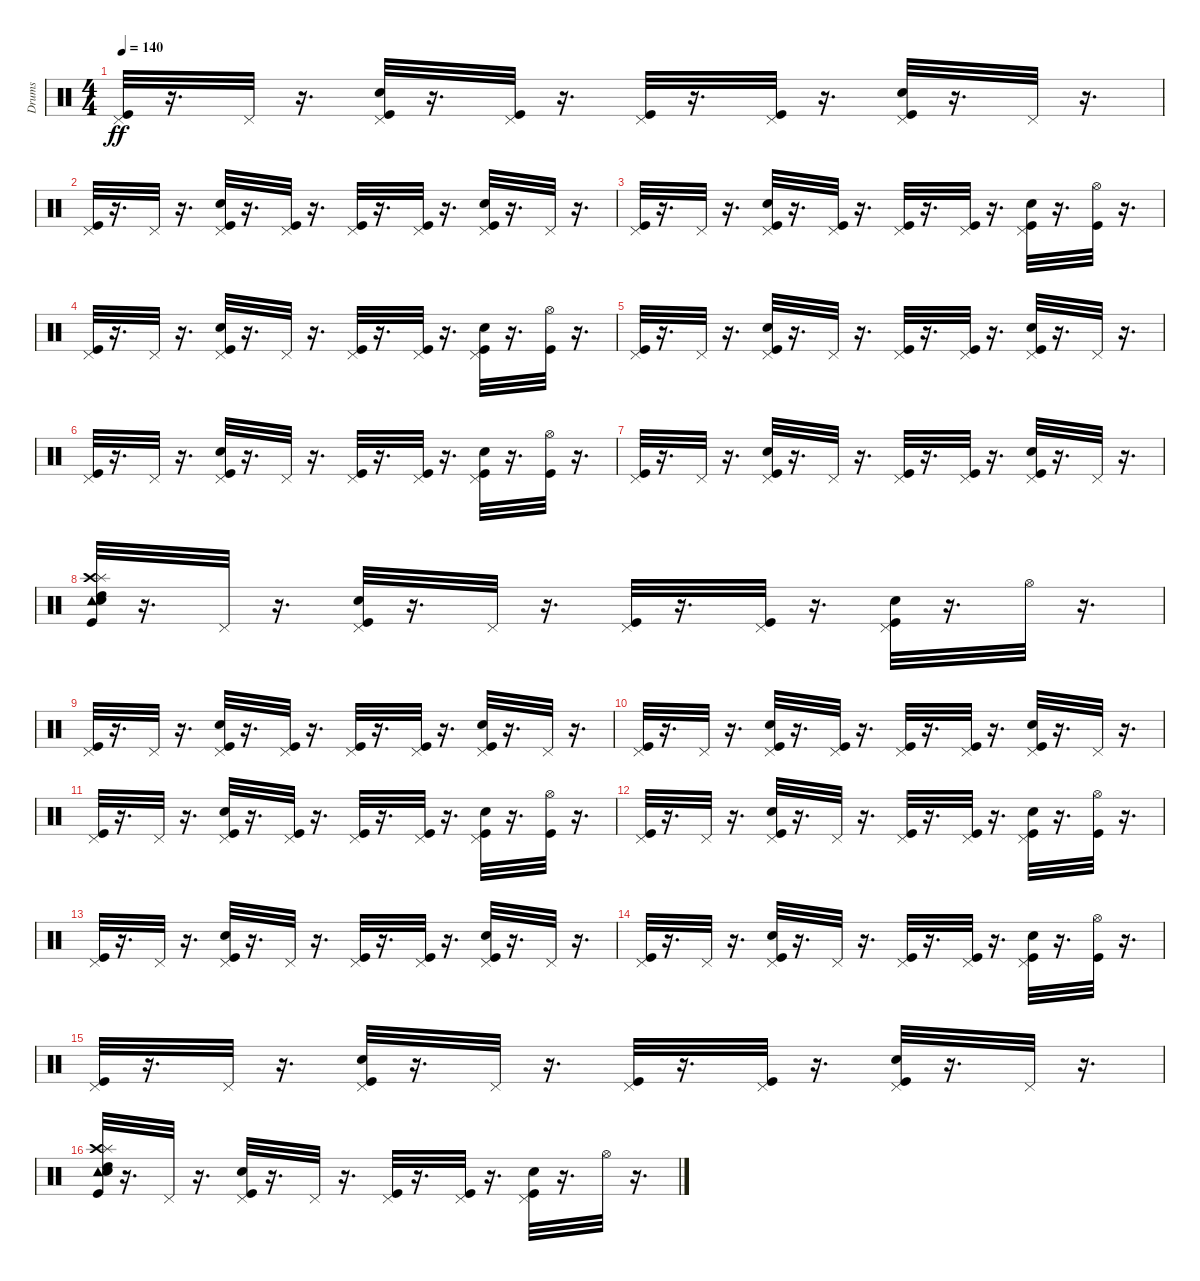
\track ("Drums" "Drums") {instrument percussion}
\staff {score}
\articulation defaults
\ts (4 4)
\tempo 140
\clef neutral
\ks c
("Pedal Hi-Hat (hit)" "Kick (hit)").32{dy ff} r.16{d} "Pedal Hi-Hat (hit)".32 r.16{d} ("Kick (hit)" "Snare (hit) 2" "Pedal Hi-Hat (hit)").32 r.16{d} ("Pedal Hi-Hat (hit)" "Kick (hit)").32 r.16{d} ("Pedal Hi-Hat (hit)" "Kick (hit)").32 r.16{d} ("Pedal Hi-Hat (hit)" "Kick (hit)").32 r.16{d} ("Snare (hit) 2" "Kick (hit)" "Pedal Hi-Hat (hit)").32 r.16{d} "Pedal Hi-Hat (hit)".32 r.16{d} |
("Pedal Hi-Hat (hit)" "Kick (hit)").32 r.16{d} "Pedal Hi-Hat (hit)".32 r.16{d} ("Snare (hit) 2" "Kick (hit)" "Pedal Hi-Hat (hit)").32 r.16{d} ("Kick (hit)" "Pedal Hi-Hat (hit)").32 r.16{d} ("Pedal Hi-Hat (hit)" "Kick (hit)").32 r.16{d} ("Pedal Hi-Hat (hit)" "Kick (hit)").32 r.16{d} ("Pedal Hi-Hat (hit)" "Snare (hit) 2" "Kick (hit)").32 r.16{d} "Pedal Hi-Hat (hit)".32 r.16{d} |
("Pedal Hi-Hat (hit)" "Kick (hit)").32 r.16{d} "Pedal Hi-Hat (hit)".32 r.16{d} ("Kick (hit)" "Pedal Hi-Hat (hit)" "Snare (hit) 2").32 r.16{d} ("Pedal Hi-Hat (hit)" "Kick (hit)").32 r.16{d} ("Pedal Hi-Hat (hit)" "Kick (hit)").32 r.16{d} ("Kick (hit)" "Pedal Hi-Hat (hit)").32 r.16{d} ("Kick (hit)" "Snare (hit) 2" "Pedal Hi-Hat (hit)").32 r.16{d} ("Hi-Hat (open)" "Kick (hit)").32 r.16{d} |
("Pedal Hi-Hat (hit)" "Kick (hit)").32 r.16{d} "Pedal Hi-Hat (hit)".32 r.16{d} ("Pedal Hi-Hat (hit)" "Kick (hit)" "Snare (hit) 2").32 r.16{d} "Pedal Hi-Hat (hit)".32 r.16{d} ("Kick (hit)" "Pedal Hi-Hat (hit)").32 r.16{d} ("Kick (hit)" "Pedal Hi-Hat (hit)").32 r.16{d} ("Kick (hit)" "Snare (hit) 2" "Pedal Hi-Hat (hit)").32 r.16{d} ("Kick (hit)" "Hi-Hat (open)").32 r.16{d} |
("Kick (hit)" "Pedal Hi-Hat (hit)").32 r.16{d} "Pedal Hi-Hat (hit)".32 r.16{d} ("Pedal Hi-Hat (hit)" "Kick (hit)" "Snare (hit) 2").32 r.16{d} "Pedal Hi-Hat (hit)".32 r.16{d} ("Pedal Hi-Hat (hit)" "Kick (hit)").32 r.16{d} ("Pedal Hi-Hat (hit)" "Kick (hit)").32 r.16{d} ("Snare (hit) 2" "Kick (hit)" "Pedal Hi-Hat (hit)").32 r.16{d} "Pedal Hi-Hat (hit)".32 r.16{d} |
("Pedal Hi-Hat (hit)" "Kick (hit)").32 r.16{d} "Pedal Hi-Hat (hit)".32 r.16{d} ("Pedal Hi-Hat (hit)" "Kick (hit)" "Snare (hit) 2").32 r.16{d} "Pedal Hi-Hat (hit)".32 r.16{d} ("Kick (hit)" "Pedal Hi-Hat (hit)").32 r.16{d} ("Kick (hit)" "Pedal Hi-Hat (hit)").32 r.16{d} ("Kick (hit)" "Snare (hit) 2" "Pedal Hi-Hat (hit)").32 r.16{d} ("Kick (hit)" "Hi-Hat (open)").32 r.16{d} |
("Kick (hit)" "Pedal Hi-Hat (hit)").32 r.16{d} "Pedal Hi-Hat (hit)".32 r.16{d} ("Pedal Hi-Hat (hit)" "Kick (hit)" "Snare (hit) 2").32 r.16{d} "Pedal Hi-Hat (hit)".32 r.16{d} ("Pedal Hi-Hat (hit)" "Kick (hit)").32 r.16{d} ("Pedal Hi-Hat (hit)" "Kick (hit)").32 r.16{d} ("Snare (hit) 2" "Kick (hit)" "Pedal Hi-Hat (hit)").32 r.16{d} "Pedal Hi-Hat (hit)".32 r.16{d} |
("Crash high (hit)" "Kick (hit)" "Tambourine (hit)" "Snare (hit) 2" "Splash (hit)" "High Tom (hit)").32 r.16{d} "Pedal Hi-Hat (hit)".32 r.16{d} ("Snare (hit) 2" "Pedal Hi-Hat (hit)" "Kick (hit)").32 r.16{d} "Pedal Hi-Hat (hit)".32 r.16{d} ("Pedal Hi-Hat (hit)" "Kick (hit)").32 r.16{d} ("Pedal Hi-Hat (hit)" "Kick (hit)").32 r.16{d} ("Pedal Hi-Hat (hit)" "Kick (hit)" "Snare (hit) 2").32 r.16{d} "Hi-Hat (open)".32 r.16{d} |
("Pedal Hi-Hat (hit)" "Kick (hit)").32 r.16{d} "Pedal Hi-Hat (hit)".32 r.16{d} ("Kick (hit)" "Snare (hit) 2" "Pedal Hi-Hat (hit)").32 r.16{d} ("Pedal Hi-Hat (hit)" "Kick (hit)").32 r.16{d} ("Pedal Hi-Hat (hit)" "Kick (hit)").32 r.16{d} ("Pedal Hi-Hat (hit)" "Kick (hit)").32 r.16{d} ("Snare (hit) 2" "Kick (hit)" "Pedal Hi-Hat (hit)").32 r.16{d} "Pedal Hi-Hat (hit)".32 r.16{d} |
("Pedal Hi-Hat (hit)" "Kick (hit)").32 r.16{d} "Pedal Hi-Hat (hit)".32 r.16{d} ("Snare (hit) 2" "Kick (hit)" "Pedal Hi-Hat (hit)").32 r.16{d} ("Kick (hit)" "Pedal Hi-Hat (hit)").32 r.16{d} ("Pedal Hi-Hat (hit)" "Kick (hit)").32 r.16{d} ("Pedal Hi-Hat (hit)" "Kick (hit)").32 r.16{d} ("Pedal Hi-Hat (hit)" "Snare (hit) 2" "Kick (hit)").32 r.16{d} "Pedal Hi-Hat (hit)".32 r.16{d} |
("Pedal Hi-Hat (hit)" "Kick (hit)").32 r.16{d} "Pedal Hi-Hat (hit)".32 r.16{d} ("Kick (hit)" "Pedal Hi-Hat (hit)" "Snare (hit) 2").32 r.16{d} ("Pedal Hi-Hat (hit)" "Kick (hit)").32 r.16{d} ("Pedal Hi-Hat (hit)" "Kick (hit)").32 r.16{d} ("Kick (hit)" "Pedal Hi-Hat (hit)").32 r.16{d} ("Kick (hit)" "Snare (hit) 2" "Pedal Hi-Hat (hit)").32 r.16{d} ("Hi-Hat (open)" "Kick (hit)").32 r.16{d} |
("Pedal Hi-Hat (hit)" "Kick (hit)").32 r.16{d} "Pedal Hi-Hat (hit)".32 r.16{d} ("Pedal Hi-Hat (hit)" "Kick (hit)" "Snare (hit) 2").32 r.16{d} "Pedal Hi-Hat (hit)".32 r.16{d} ("Kick (hit)" "Pedal Hi-Hat (hit)").32 r.16{d} ("Kick (hit)" "Pedal Hi-Hat (hit)").32 r.16{d} ("Kick (hit)" "Snare (hit) 2" "Pedal Hi-Hat (hit)").32 r.16{d} ("Kick (hit)" "Hi-Hat (open)").32 r.16{d} |
("Kick (hit)" "Pedal Hi-Hat (hit)").32 r.16{d} "Pedal Hi-Hat (hit)".32 r.16{d} ("Pedal Hi-Hat (hit)" "Kick (hit)" "Snare (hit) 2").32 r.16{d} "Pedal Hi-Hat (hit)".32 r.16{d} ("Pedal Hi-Hat (hit)" "Kick (hit)").32 r.16{d} ("Pedal Hi-Hat (hit)" "Kick (hit)").32 r.16{d} ("Snare (hit) 2" "Kick (hit)" "Pedal Hi-Hat (hit)").32 r.16{d} "Pedal Hi-Hat (hit)".32 r.16{d} |
("Pedal Hi-Hat (hit)" "Kick (hit)").32 r.16{d} "Pedal Hi-Hat (hit)".32 r.16{d} ("Pedal Hi-Hat (hit)" "Kick (hit)" "Snare (hit) 2").32 r.16{d} "Pedal Hi-Hat (hit)".32 r.16{d} ("Kick (hit)" "Pedal Hi-Hat (hit)").32 r.16{d} ("Kick (hit)" "Pedal Hi-Hat (hit)").32 r.16{d} ("Kick (hit)" "Snare (hit) 2" "Pedal Hi-Hat (hit)").32 r.16{d} ("Kick (hit)" "Hi-Hat (open)").32 r.16{d} |
("Kick (hit)" "Pedal Hi-Hat (hit)").32 r.16{d} "Pedal Hi-Hat (hit)".32 r.16{d} ("Pedal Hi-Hat (hit)" "Kick (hit)" "Snare (hit) 2").32 r.16{d} "Pedal Hi-Hat (hit)".32 r.16{d} ("Pedal Hi-Hat (hit)" "Kick (hit)").32 r.16{d} ("Pedal Hi-Hat (hit)" "Kick (hit)").32 r.16{d} ("Snare (hit) 2" "Kick (hit)" "Pedal Hi-Hat (hit)").32 r.16{d} "Pedal Hi-Hat (hit)".32 r.16{d} |
("Crash high (hit)" "Kick (hit)" "Tambourine (hit)" "Snare (hit) 2" "Splash (hit)" "High Tom (hit)").32 r.16{d} "Pedal Hi-Hat (hit)".32 r.16{d} ("Snare (hit) 2" "Pedal Hi-Hat (hit)" "Kick (hit)").32 r.16{d} "Pedal Hi-Hat (hit)".32 r.16{d} ("Pedal Hi-Hat (hit)" "Kick (hit)").32 r.16{d} ("Pedal Hi-Hat (hit)" "Kick (hit)").32 r.16{d} ("Pedal Hi-Hat (hit)" "Kick (hit)" "Snare (hit) 2").32 r.16{d} "Hi-Hat (open)".32 r.16{d}
